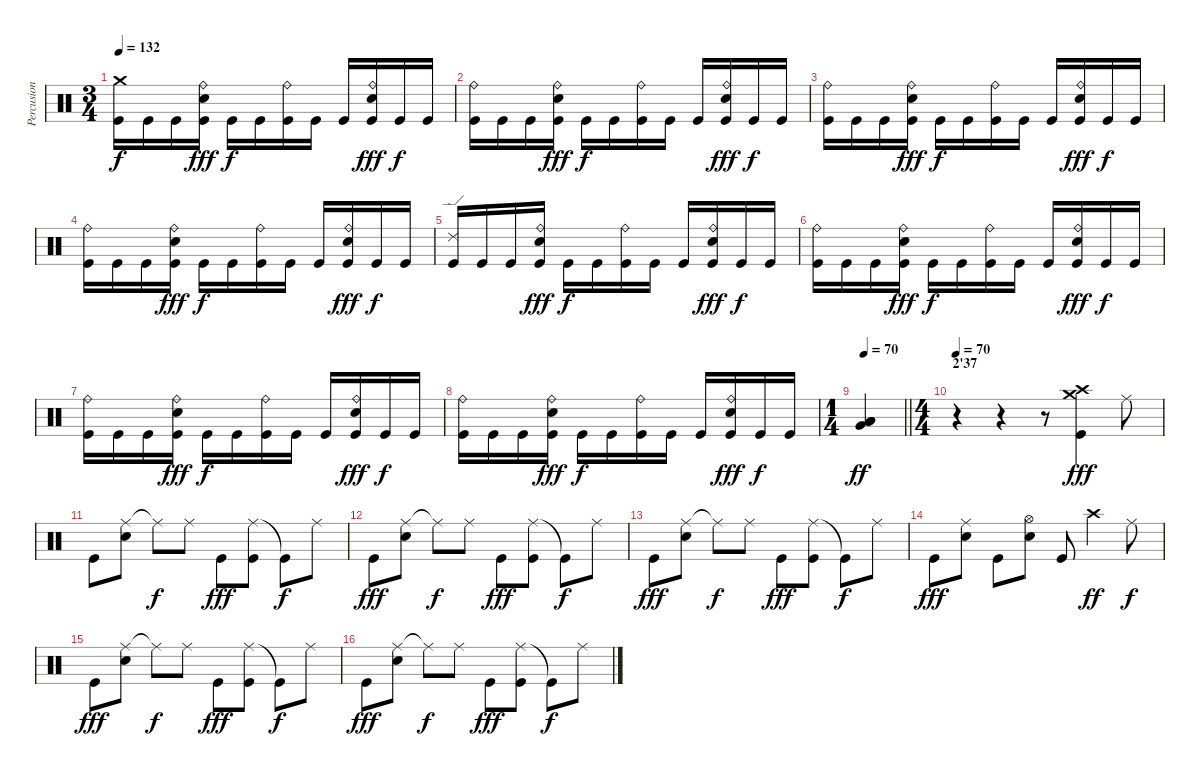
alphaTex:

\track ("Percusion" "Percusion") {instrument percussion}
\staff {score}
\articulation defaults
\ts (3 4)
\tempo 132
\clef neutral
\ks c
("Crash medium (hit)" "Kick (hit)").16{dy f} "Kick (hit)".16 "Kick (hit)".16 ("Ride (bell)" "Electric Snare (hit)" "Kick (hit)").16{dy fff} "Kick (hit)".16{dy f} "Kick (hit)".16 ("Ride (bell)" "Kick (hit)").16 "Kick (hit)".16 "Kick (hit)".16 ("Ride (bell)" "Electric Snare (hit)" "Kick (hit)").16{dy fff} "Kick (hit)".16{dy f} "Kick (hit)".16 |
("Ride (bell)" "Kick (hit)").16 "Kick (hit)".16 "Kick (hit)".16 ("Ride (bell)" "Electric Snare (hit)" "Kick (hit)").16{dy fff} "Kick (hit)".16{dy f} "Kick (hit)".16 ("Ride (bell)" "Kick (hit)").16 "Kick (hit)".16 "Kick (hit)".16 ("Ride (bell)" "Electric Snare (hit)" "Kick (hit)").16{dy fff} "Kick (hit)".16{dy f} "Kick (hit)".16 |
("Ride (bell)" "Kick (hit)").16 "Kick (hit)".16 "Kick (hit)".16 ("Ride (bell)" "Electric Snare (hit)" "Kick (hit)").16{dy fff} "Kick (hit)".16{dy f} "Kick (hit)".16 ("Ride (bell)" "Kick (hit)").16 "Kick (hit)".16 "Kick (hit)".16 ("Ride (bell)" "Electric Snare (hit)" "Kick (hit)").16{dy fff} "Kick (hit)".16{dy f} "Kick (hit)".16 |
("Ride (bell)" "Kick (hit)").16 "Kick (hit)".16 "Kick (hit)".16 ("Ride (bell)" "Electric Snare (hit)" "Kick (hit)").16{dy fff} "Kick (hit)".16{dy f} "Kick (hit)".16 ("Ride (bell)" "Kick (hit)").16 "Kick (hit)".16 "Kick (hit)".16 ("Ride (bell)" "Electric Snare (hit)" "Kick (hit)").16{dy fff} "Kick (hit)".16{dy f} "Kick (hit)".16 |
("Ride (edge) 2" "Kick (hit)").16 "Kick (hit)".16 "Kick (hit)".16 ("Ride (bell)" "Electric Snare (hit)" "Kick (hit)").16{dy fff} "Kick (hit)".16{dy f} "Kick (hit)".16 ("Ride (bell)" "Kick (hit)").16 "Kick (hit)".16 "Kick (hit)".16 ("Ride (bell)" "Electric Snare (hit)" "Kick (hit)").16{dy fff} "Kick (hit)".16{dy f} "Kick (hit)".16 |
("Ride (bell)" "Kick (hit)").16 "Kick (hit)".16 "Kick (hit)".16 ("Ride (bell)" "Electric Snare (hit)" "Kick (hit)").16{dy fff} "Kick (hit)".16{dy f} "Kick (hit)".16 ("Ride (bell)" "Kick (hit)").16 "Kick (hit)".16 "Kick (hit)".16 ("Ride (bell)" "Electric Snare (hit)" "Kick (hit)").16{dy fff} "Kick (hit)".16{dy f} "Kick (hit)".16 |
("Ride (bell)" "Kick (hit)").16 "Kick (hit)".16 "Kick (hit)".16 ("Ride (bell)" "Electric Snare (hit)" "Kick (hit)").16{dy fff} "Kick (hit)".16{dy f} "Kick (hit)".16 ("Ride (bell)" "Kick (hit)").16 "Kick (hit)".16 "Kick (hit)".16 ("Ride (bell)" "Electric Snare (hit)" "Kick (hit)").16{dy fff} "Kick (hit)".16{dy f} "Kick (hit)".16 |
("Ride (bell)" "Kick (hit)").16 "Kick (hit)".16 "Kick (hit)".16 ("Ride (bell)" "Electric Snare (hit)" "Kick (hit)").16{dy fff} "Kick (hit)".16{dy f} "Kick (hit)".16 ("Ride (bell)" "Kick (hit)").16 "Kick (hit)".16 "Kick (hit)".16 ("Ride (bell)" "Electric Snare (hit)" "Kick (hit)").16{dy fff} "Kick (hit)".16{dy f} "Kick (hit)".16 |
\ts (1 4)
\tempo 70
\barLineRight lightlight
("Very Low Tom (hit)" "Low Tom (hit)" "Low Floor Tom (hit)").4{dy ff} |
\ts (4 4)
\section ("" "2'37")
\tempo 70
r.4 r.4 r.8 ("Crash high (hit)" "Crash medium (hit)" "Kick (hit)").4{dy fff} "Ride (middle)".8 |
"Kick (hit)".8 ("Ride (middle)" "Electric Snare (hit)").8 "Ride (middle)"{t}.8{dy f} "Ride (middle)".8 "Kick (hit)".8{dy fff} ("Ride (middle)" "Kick (hit)").8 "Kick (hit)"{t}.8{dy f} "Ride (middle)".8 |
"Kick (hit)".8{dy fff} ("Ride (middle)" "Electric Snare (hit)").8 "Ride (middle)"{t}.8{dy f} "Ride (middle)".8 "Kick (hit)".8{dy fff} ("Ride (middle)" "Kick (hit)").8 "Kick (hit)"{t}.8{dy f} "Ride (middle)".8 |
"Kick (hit)".8{dy fff} ("Ride (middle)" "Electric Snare (hit)").8 "Ride (middle)"{t}.8{dy f} "Ride (middle)".8 "Kick (hit)".8{dy fff} ("Ride (middle)" "Kick (hit)").8 "Kick (hit)"{t}.8{dy f} "Ride (middle)".8 |
"Kick (hit)".8{dy fff} ("Ride (middle)" "Electric Snare (hit)").8 "Kick (hit)".8 ("Hi-Hat (open)" "Electric Snare (hit)").8 "Kick (hit)".8 "Crash high (hit)".4{dy ff} "Ride (middle)".8{dy f} |
"Kick (hit)".8{dy fff} ("Ride (middle)" "Electric Snare (hit)").8 "Ride (middle)"{t}.8{dy f} "Ride (middle)".8 "Kick (hit)".8{dy fff} ("Ride (middle)" "Kick (hit)").8 "Kick (hit)"{t}.8{dy f} "Ride (middle)".8 |
"Kick (hit)".8{dy fff} ("Ride (middle)" "Electric Snare (hit)").8 "Ride (middle)"{t}.8{dy f} "Ride (middle)".8 "Kick (hit)".8{dy fff} ("Ride (middle)" "Kick (hit)").8 "Kick (hit)"{t}.8{dy f} "Ride (middle)".8
